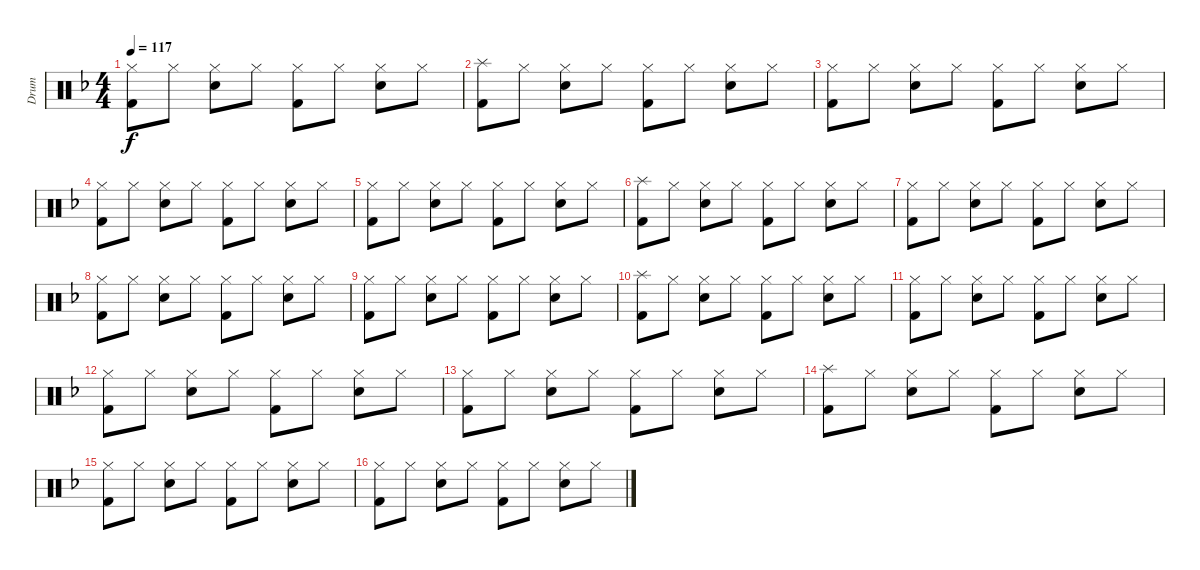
\track ("Drum" "Drum") {instrument percussion}
\staff {score}
\articulation defaults
\ts (4 4)
\tempo 117
\clef neutral
\ks f
("Kick (hit) 2" "Hi-Hat (closed)").8{dy f} "Hi-Hat (closed)".8 ("Snare (hit) 2" "Hi-Hat (closed)").8 "Hi-Hat (closed)".8 ("Kick (hit) 2" "Hi-Hat (closed)").8 "Hi-Hat (closed)".8 ("Snare (hit) 2" "Hi-Hat (closed)").8 "Hi-Hat (closed)".8 |
("Kick (hit) 2" "Splash (hit)").8 "Hi-Hat (closed)".8 ("Snare (hit) 2" "Hi-Hat (closed)").8 "Hi-Hat (closed)".8 ("Kick (hit) 2" "Hi-Hat (closed)").8 "Hi-Hat (closed)".8 ("Snare (hit) 2" "Hi-Hat (closed)").8 "Hi-Hat (closed)".8 |
("Kick (hit) 2" "Hi-Hat (closed)").8 "Hi-Hat (closed)".8 ("Snare (hit) 2" "Hi-Hat (closed)").8 "Hi-Hat (closed)".8 ("Kick (hit) 2" "Hi-Hat (closed)").8 "Hi-Hat (closed)".8 ("Snare (hit) 2" "Hi-Hat (closed)").8 "Hi-Hat (closed)".8 |
("Kick (hit) 2" "Hi-Hat (closed)").8 "Hi-Hat (closed)".8 ("Snare (hit) 2" "Hi-Hat (closed)").8 "Hi-Hat (closed)".8 ("Kick (hit) 2" "Hi-Hat (closed)").8 "Hi-Hat (closed)".8 ("Snare (hit) 2" "Hi-Hat (closed)").8 "Hi-Hat (closed)".8 |
("Kick (hit) 2" "Hi-Hat (closed)").8 "Hi-Hat (closed)".8 ("Snare (hit) 2" "Hi-Hat (closed)").8 "Hi-Hat (closed)".8 ("Kick (hit) 2" "Hi-Hat (closed)").8 "Hi-Hat (closed)".8 ("Snare (hit) 2" "Hi-Hat (closed)").8 "Hi-Hat (closed)".8 |
("Kick (hit) 2" "Splash (hit)").8 "Hi-Hat (closed)".8 ("Snare (hit) 2" "Hi-Hat (closed)").8 "Hi-Hat (closed)".8 ("Kick (hit) 2" "Hi-Hat (closed)").8 "Hi-Hat (closed)".8 ("Snare (hit) 2" "Hi-Hat (closed)").8 "Hi-Hat (closed)".8 |
("Kick (hit) 2" "Hi-Hat (closed)").8 "Hi-Hat (closed)".8 ("Snare (hit) 2" "Hi-Hat (closed)").8 "Hi-Hat (closed)".8 ("Kick (hit) 2" "Hi-Hat (closed)").8 "Hi-Hat (closed)".8 ("Snare (hit) 2" "Hi-Hat (closed)").8 "Hi-Hat (closed)".8 |
("Kick (hit) 2" "Hi-Hat (closed)").8 "Hi-Hat (closed)".8 ("Snare (hit) 2" "Hi-Hat (closed)").8 "Hi-Hat (closed)".8 ("Kick (hit) 2" "Hi-Hat (closed)").8 "Hi-Hat (closed)".8 ("Snare (hit) 2" "Hi-Hat (closed)").8 "Hi-Hat (closed)".8 |
("Kick (hit) 2" "Hi-Hat (closed)").8 "Hi-Hat (closed)".8 ("Snare (hit) 2" "Hi-Hat (closed)").8 "Hi-Hat (closed)".8 ("Kick (hit) 2" "Hi-Hat (closed)").8 "Hi-Hat (closed)".8 ("Snare (hit) 2" "Hi-Hat (closed)").8 "Hi-Hat (closed)".8 |
("Kick (hit) 2" "Splash (hit)").8 "Hi-Hat (closed)".8 ("Snare (hit) 2" "Hi-Hat (closed)").8 "Hi-Hat (closed)".8 ("Kick (hit) 2" "Hi-Hat (closed)").8 "Hi-Hat (closed)".8 ("Snare (hit) 2" "Hi-Hat (closed)").8 "Hi-Hat (closed)".8 |
("Kick (hit) 2" "Hi-Hat (closed)").8 "Hi-Hat (closed)".8 ("Snare (hit) 2" "Hi-Hat (closed)").8 "Hi-Hat (closed)".8 ("Kick (hit) 2" "Hi-Hat (closed)").8 "Hi-Hat (closed)".8 ("Snare (hit) 2" "Hi-Hat (closed)").8 "Hi-Hat (closed)".8 |
("Kick (hit) 2" "Hi-Hat (closed)").8 "Hi-Hat (closed)".8 ("Snare (hit) 2" "Hi-Hat (closed)").8 "Hi-Hat (closed)".8 ("Kick (hit) 2" "Hi-Hat (closed)").8 "Hi-Hat (closed)".8 ("Snare (hit) 2" "Hi-Hat (closed)").8 "Hi-Hat (closed)".8 |
("Kick (hit) 2" "Hi-Hat (closed)").8 "Hi-Hat (closed)".8 ("Snare (hit) 2" "Hi-Hat (closed)").8 "Hi-Hat (closed)".8 ("Kick (hit) 2" "Hi-Hat (closed)").8 "Hi-Hat (closed)".8 ("Snare (hit) 2" "Hi-Hat (closed)").8 "Hi-Hat (closed)".8 |
("Kick (hit) 2" "Splash (hit)").8 "Hi-Hat (closed)".8 ("Snare (hit) 2" "Hi-Hat (closed)").8 "Hi-Hat (closed)".8 ("Kick (hit) 2" "Hi-Hat (closed)").8 "Hi-Hat (closed)".8 ("Snare (hit) 2" "Hi-Hat (closed)").8 "Hi-Hat (closed)".8 |
("Kick (hit) 2" "Hi-Hat (closed)").8 "Hi-Hat (closed)".8 ("Snare (hit) 2" "Hi-Hat (closed)").8 "Hi-Hat (closed)".8 ("Kick (hit) 2" "Hi-Hat (closed)").8 "Hi-Hat (closed)".8 ("Snare (hit) 2" "Hi-Hat (closed)").8 "Hi-Hat (closed)".8 |
("Kick (hit) 2" "Hi-Hat (closed)").8 "Hi-Hat (closed)".8 ("Snare (hit) 2" "Hi-Hat (closed)").8 "Hi-Hat (closed)".8 ("Kick (hit) 2" "Hi-Hat (closed)").8 "Hi-Hat (closed)".8 ("Snare (hit) 2" "Hi-Hat (closed)").8 "Hi-Hat (closed)".8
